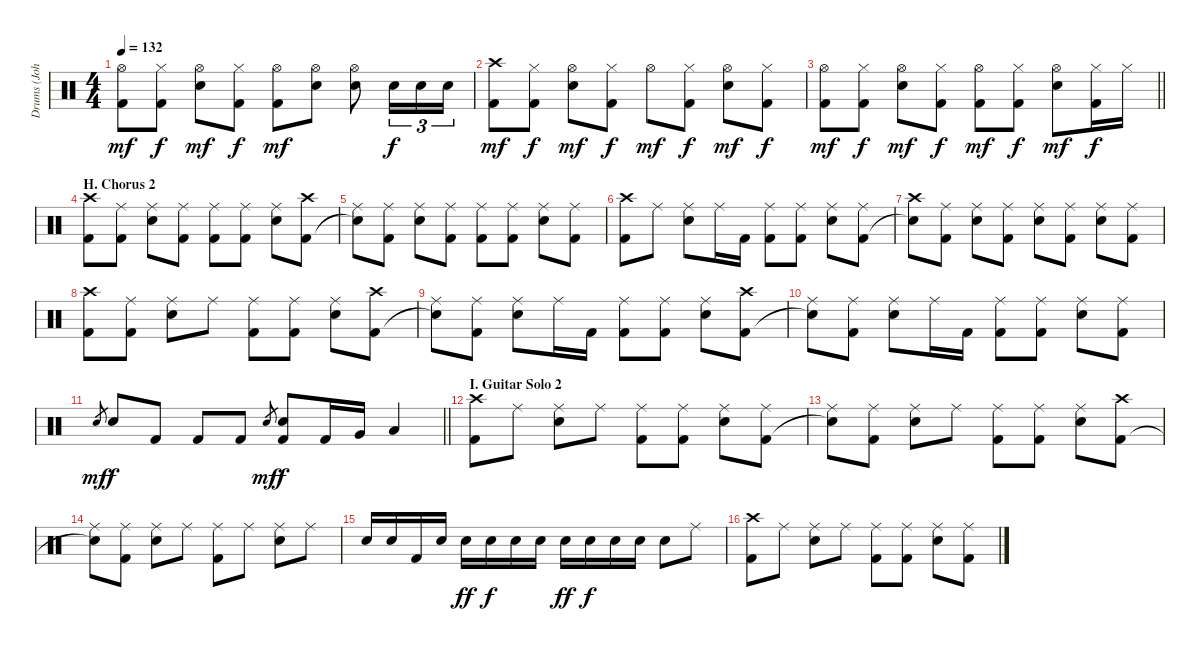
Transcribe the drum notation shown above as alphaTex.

\track ("Drums (John Bonham)" "Drums (Joh") {instrument percussion}
\staff {score}
\articulation defaults
\ts (4 4)
\tempo 132
\clef neutral
\ks c
("Hi-Hat (open)" "Kick (hit) 2").8{dy mf} ("Hi-Hat (closed)" "Kick (hit) 2").8{dy f} ("Hi-Hat (open)" "Electric Snare (hit)").8{dy mf} ("Hi-Hat (closed)" "Kick (hit) 2").8{dy f} ("Hi-Hat (open)" "Kick (hit) 2").8{dy mf} ("Hi-Hat (open)" "Electric Snare (hit)").8 ("Hi-Hat (open)" "Electric Snare (hit)").8 "Electric Snare (hit)".16{tu (3 2) dy f} "Electric Snare (hit)".16{tu (3 2)} "Electric Snare (hit)".16{tu (3 2)} |
("Crash high (hit)" "Kick (hit) 2").8{dy mf} ("Hi-Hat (closed)" "Kick (hit) 2").8{dy f} ("Hi-Hat (open)" "Electric Snare (hit)").8{dy mf} ("Hi-Hat (closed)" "Kick (hit) 2").8{dy f} "Hi-Hat (open)".8{dy mf} ("Hi-Hat (closed)" "Kick (hit) 2").8{dy f} ("Hi-Hat (open)" "Electric Snare (hit)").8{dy mf} ("Hi-Hat (closed)" "Kick (hit) 2").8{dy f} |
\barLineRight lightlight
("Hi-Hat (open)" "Kick (hit) 2").8{dy mf} ("Hi-Hat (closed)" "Kick (hit) 2").8{dy f} ("Hi-Hat (open)" "Electric Snare (hit)").8{dy mf} ("Hi-Hat (closed)" "Kick (hit) 2").8{dy f} ("Hi-Hat (open)" "Kick (hit) 2").8{dy mf} ("Hi-Hat (closed)" "Kick (hit) 2").8{dy f} ("Hi-Hat (open)" "Electric Snare (hit)").8{dy mf} ("Hi-Hat (closed)" "Kick (hit) 2").16{dy f} "Hi-Hat (closed)".16 |
\section ("" "H. Chorus 2")
("Crash high (hit)" "Kick (hit) 2").8 ("Ride (middle)" "Kick (hit) 2").8 ("Ride (middle)" "Electric Snare (hit)").8 ("Ride (middle)" "Kick (hit) 2").8 ("Ride (middle)" "Kick (hit) 2").8 ("Ride (middle)" "Kick (hit) 2").8 ("Ride (middle)" "Electric Snare (hit)").8 ("Crash high (hit)" "Kick (hit) 2").8 |
("Ride (middle)" "Snare (hit)"{t}).8 ("Ride (middle)" "Kick (hit) 2").8 ("Ride (middle)" "Electric Snare (hit)").8 ("Ride (middle)" "Kick (hit) 2").8 ("Ride (middle)" "Kick (hit) 2").8 ("Ride (middle)" "Kick (hit) 2").8 ("Ride (middle)" "Electric Snare (hit)").8 ("Ride (middle)" "Kick (hit) 2").8 |
("Crash high (hit)" "Kick (hit) 2").8 "Ride (middle)".8 ("Ride (middle)" "Electric Snare (hit)").8 "Ride (middle)".16 "Kick (hit) 2".16 ("Ride (middle)" "Kick (hit) 2").8 ("Ride (middle)" "Kick (hit) 2").8 ("Ride (middle)" "Electric Snare (hit)").8 ("Ride (middle)" "Kick (hit) 2").8 |
("Crash high (hit)" "Snare (hit)"{t}).8 ("Ride (middle)" "Kick (hit) 2").8 ("Ride (middle)" "Electric Snare (hit)").8 ("Ride (middle)" "Kick (hit) 2").8 ("Ride (middle)" "Electric Snare (hit)").8 ("Ride (middle)" "Kick (hit) 2").8 ("Ride (middle)" "Electric Snare (hit)").8 ("Ride (middle)" "Kick (hit) 2").8 |
("Crash high (hit)" "Kick (hit) 2").8 ("Ride (middle)" "Kick (hit) 2").8 ("Ride (middle)" "Electric Snare (hit)").8 "Ride (middle)".8 ("Ride (middle)" "Kick (hit) 2").8 ("Ride (middle)" "Kick (hit) 2").8 ("Ride (middle)" "Electric Snare (hit)").8 ("Crash high (hit)" "Kick (hit) 2").8 |
("Ride (middle)" "Snare (hit)"{t}).8 ("Ride (middle)" "Kick (hit) 2").8 ("Ride (middle)" "Electric Snare (hit)").8 "Ride (middle)".16 "Kick (hit) 2".16 ("Ride (middle)" "Kick (hit) 2").8 ("Ride (middle)" "Kick (hit) 2").8 ("Ride (middle)" "Electric Snare (hit)").8 ("Crash high (hit)" "Kick (hit) 2").8 |
("Ride (middle)" "Snare (hit)"{t}).8 ("Ride (middle)" "Kick (hit) 2").8 ("Ride (middle)" "Electric Snare (hit)").8 "Ride (middle)".16 "Kick (hit) 2".16 ("Ride (middle)" "Kick (hit) 2").8 ("Ride (middle)" "Kick (hit) 2").8 ("Ride (middle)" "Electric Snare (hit)").8 ("Ride (middle)" "Kick (hit) 2").8 |
\barLineRight lightlight "Electric Snare (hit)".8{gr dy mf} "Electric Snare (hit)".8{dy f} "Kick (hit) 2".8 "Kick (hit) 2".8 "Kick (hit) 2".8 "Electric Snare (hit)".8{gr dy mf}
("Electric Snare (hit)" "Kick (hit) 2").8{dy f} "Kick (hit) 2".16 "Very Low Tom (hit)".16 "Low Tom (hit)".4 |
\section ("" "I. Guitar Solo 2")
("Crash high (hit)" "Kick (hit) 2").8 "Ride (middle)".8 ("Ride (middle)" "Electric Snare (hit)").8 "Ride (middle)".8 ("Ride (middle)" "Kick (hit) 2").8 ("Ride (middle)" "Kick (hit) 2").8 ("Ride (middle)" "Electric Snare (hit)").8 ("Ride (middle)" "Kick (hit) 2").8 |
("Ride (middle)" "Snare (hit)"{t}).8 ("Ride (middle)" "Kick (hit) 2").8 ("Ride (middle)" "Electric Snare (hit)").8 "Ride (middle)".8 ("Ride (middle)" "Kick (hit) 2").8 ("Ride (middle)" "Kick (hit) 2").8 ("Ride (middle)" "Electric Snare (hit)").8 ("Crash high (hit)" "Kick (hit) 2").8 |
("Ride (middle)" "Snare (hit)"{t}).8 ("Ride (middle)" "Kick (hit) 2").8 ("Ride (middle)" "Electric Snare (hit)").8 "Ride (middle)".8 ("Ride (middle)" "Kick (hit) 2").8 "Ride (middle)".8 ("Ride (middle)" "Electric Snare (hit)").8 "Ride (middle)".8 |
"Electric Snare (hit)".16 "Electric Snare (hit)".16 "Kick (hit) 2".16 "Electric Snare (hit)".16 "Electric Snare (hit)".16{dy ff} "Electric Snare (hit)".16{dy f} "Electric Snare (hit)".16 "Electric Snare (hit)".16 "Electric Snare (hit)".16{dy ff} "Electric Snare (hit)".16{dy f} "Electric Snare (hit)".16 "Electric Snare (hit)".16 "Electric Snare (hit)".8 "Ride (middle)".8 |
("Crash high (hit)" "Kick (hit) 2").8 "Ride (middle)".8 ("Ride (middle)" "Electric Snare (hit)").8 "Ride (middle)".8 ("Ride (middle)" "Kick (hit) 2").8 ("Ride (middle)" "Kick (hit) 2").8 ("Ride (middle)" "Electric Snare (hit)").8 ("Ride (middle)" "Kick (hit) 2").8
